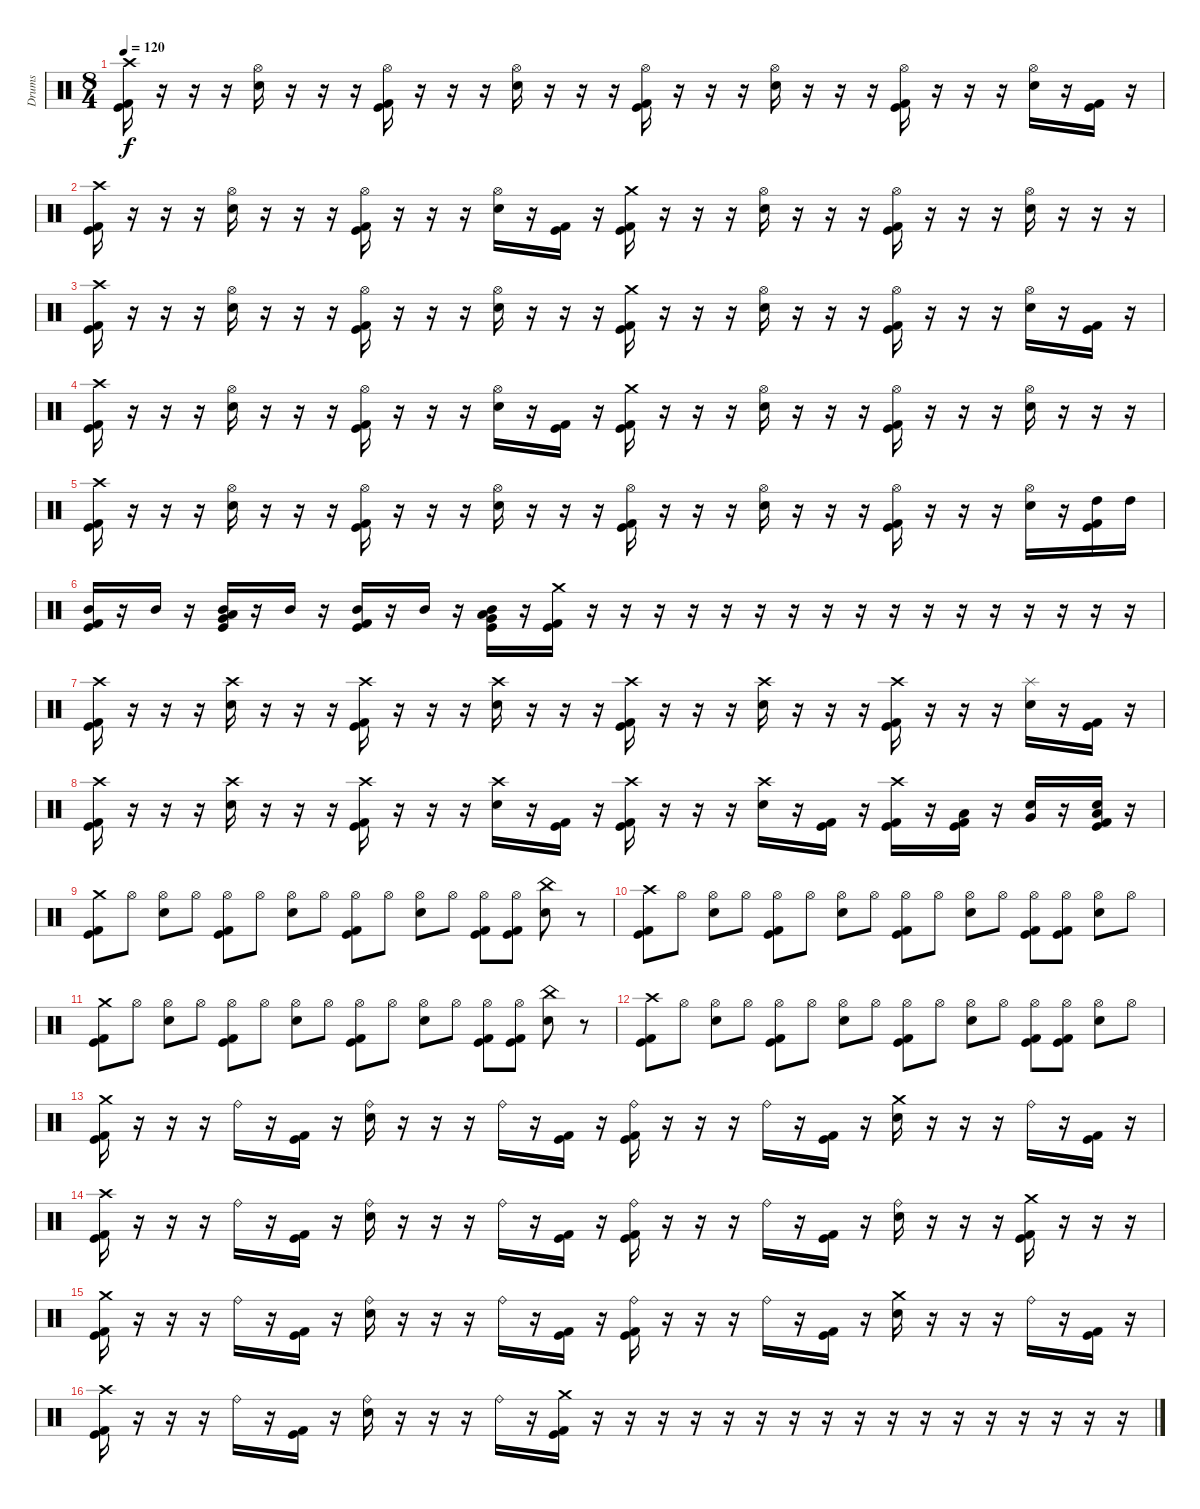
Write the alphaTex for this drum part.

\track ("Drums" "Drums") {instrument percussion}
\staff {score}
\articulation defaults
\ts (8 4)
\tempo 120
\clef neutral
\ks c
("Crash high (hit)" "Kick (hit) 2" "Kick (hit)").16{dy f} r.16 r.16 r.16 ("Hi-Hat (open)" "Electric Snare (hit)").16 r.16 r.16 r.16 ("Hi-Hat (open)" "Kick (hit) 2" "Kick (hit)").16 r.16 r.16 r.16 ("Hi-Hat (open)" "Electric Snare (hit)").16 r.16 r.16 r.16 ("Hi-Hat (open)" "Kick (hit) 2" "Kick (hit)").16 r.16 r.16 r.16 ("Hi-Hat (open)" "Electric Snare (hit)").16 r.16 r.16 r.16 ("Hi-Hat (open)" "Kick (hit) 2" "Kick (hit)").16 r.16 r.16 r.16 ("Hi-Hat (open)" "Electric Snare (hit)").16 r.16 ("Kick (hit) 2" "Kick (hit)").16 r.16 |
("Crash high (hit)" "Kick (hit) 2" "Kick (hit)").16 r.16 r.16 r.16 ("Hi-Hat (open)" "Electric Snare (hit)").16 r.16 r.16 r.16 ("Hi-Hat (open)" "Kick (hit) 2" "Kick (hit)").16 r.16 r.16 r.16 ("Hi-Hat (open)" "Electric Snare (hit)").16 r.16 ("Kick (hit) 2" "Kick (hit)").16 r.16 ("Crash medium (hit)" "Kick (hit) 2" "Kick (hit)").16 r.16 r.16 r.16 ("Hi-Hat (open)" "Electric Snare (hit)").16 r.16 r.16 r.16 ("Hi-Hat (open)" "Kick (hit) 2" "Kick (hit)").16 r.16 r.16 r.16 ("Hi-Hat (open)" "Electric Snare (hit)").16 r.16 r.16 r.16 |
("Crash high (hit)" "Kick (hit) 2" "Kick (hit)").16 r.16 r.16 r.16 ("Hi-Hat (open)" "Electric Snare (hit)").16 r.16 r.16 r.16 ("Hi-Hat (open)" "Kick (hit) 2" "Kick (hit)").16 r.16 r.16 r.16 ("Hi-Hat (open)" "Electric Snare (hit)").16 r.16 r.16 r.16 ("Crash medium (hit)" "Kick (hit) 2" "Kick (hit)").16 r.16 r.16 r.16 ("Hi-Hat (open)" "Electric Snare (hit)").16 r.16 r.16 r.16 ("Hi-Hat (open)" "Kick (hit) 2" "Kick (hit)").16 r.16 r.16 r.16 ("Hi-Hat (open)" "Electric Snare (hit)").16 r.16 ("Kick (hit) 2" "Kick (hit)").16 r.16 |
("Crash high (hit)" "Kick (hit) 2" "Kick (hit)").16 r.16 r.16 r.16 ("Hi-Hat (open)" "Electric Snare (hit)").16 r.16 r.16 r.16 ("Hi-Hat (open)" "Kick (hit) 2" "Kick (hit)").16 r.16 r.16 r.16 ("Hi-Hat (open)" "Electric Snare (hit)").16 r.16 ("Kick (hit) 2" "Kick (hit)").16 r.16 ("Crash medium (hit)" "Kick (hit) 2" "Kick (hit)").16 r.16 r.16 r.16 ("Hi-Hat (open)" "Electric Snare (hit)").16 r.16 r.16 r.16 ("Hi-Hat (open)" "Kick (hit) 2" "Kick (hit)").16 r.16 r.16 r.16 ("Hi-Hat (open)" "Electric Snare (hit)").16 r.16 r.16 r.16 |
("Crash high (hit)" "Kick (hit) 2" "Kick (hit)").16 r.16 r.16 r.16 ("Hi-Hat (open)" "Electric Snare (hit)").16 r.16 r.16 r.16 ("Hi-Hat (open)" "Kick (hit) 2" "Kick (hit)").16 r.16 r.16 r.16 ("Hi-Hat (open)" "Electric Snare (hit)").16 r.16 r.16 r.16 ("Hi-Hat (open)" "Kick (hit) 2" "Kick (hit)").16 r.16 r.16 r.16 ("Hi-Hat (open)" "Electric Snare (hit)").16 r.16 r.16 r.16 ("Hi-Hat (open)" "Kick (hit) 2" "Kick (hit)").16 r.16 r.16 r.16 ("Hi-Hat (open)" "Electric Snare (hit)").16 r.16 ("High Tom (hit)" "Kick (hit) 2" "Kick (hit)").16 "High Tom (hit)".16 |
("Mid Tom (hit)" "Kick (hit) 2" "Kick (hit)").16 r.16 "Mid Tom (hit)".16 r.16 ("Mid Tom (hit)" "Low Floor Tom (hit)" "Very Low Tom (hit)" "Kick (hit)").16 r.16 "Mid Tom (hit)".16 r.16 ("Mid Tom (hit)" "Kick (hit) 2" "Kick (hit)").16 r.16 "Mid Tom (hit)".16 r.16 ("Mid Tom (hit)" "Low Floor Tom (hit)" "Very Low Tom (hit)" "Kick (hit)").16 r.16 ("Crash medium (hit)" "Kick (hit) 2" "Kick (hit)").16 r.16 r.16 r.16 r.16 r.16 r.16 r.16 r.16 r.16 r.16 r.16 r.16 r.16 r.16 r.16 r.16 r.16 |
("Crash high (hit)" "Kick (hit)" "Kick (hit) 2").16 r.16 r.16 r.16 ("Crash high (hit)" "Electric Snare (hit)").16 r.16 r.16 r.16 ("Crash high (hit)" "Kick (hit)" "Kick (hit) 2").16 r.16 r.16 r.16 ("Crash high (hit)" "Electric Snare (hit)").16 r.16 r.16 r.16 ("Crash high (hit)" "Kick (hit) 2" "Kick (hit)").16 r.16 r.16 r.16 ("Crash high (hit)" "Electric Snare (hit)").16 r.16 r.16 r.16 ("Crash high (hit)" "Kick (hit) 2" "Kick (hit)").16 r.16 r.16 r.16 ("Splash (hit)" "Electric Snare (hit)").16 r.16 ("Kick (hit) 2" "Kick (hit)").16 r.16 |
("Crash high (hit)" "Kick (hit)" "Kick (hit) 2").16 r.16 r.16 r.16 ("Crash high (hit)" "Electric Snare (hit)").16 r.16 r.16 r.16 ("Crash high (hit)" "Kick (hit)" "Kick (hit) 2").16 r.16 r.16 r.16 ("Crash high (hit)" "Electric Snare (hit)").16 r.16 ("Kick (hit) 2" "Kick (hit)").16 r.16 ("Crash high (hit)" "Kick (hit) 2" "Kick (hit)").16 r.16 r.16 r.16 ("Crash high (hit)" "Electric Snare (hit)").16 r.16 ("Kick (hit) 2" "Kick (hit)").16 r.16 ("Crash high (hit)" "Kick (hit) 2" "Kick (hit)").16 r.16 ("Low Tom (hit)" "Kick (hit) 2" "Kick (hit)").16 r.16 ("Very Low Tom (hit)" "Electric Snare (hit)").16 r.16 ("Electric Snare (hit)" "Low Floor Tom (hit)" "Kick (hit) 2" "Kick (hit)").16 r.16 |
("Crash medium (hit)" "Kick (hit) 2" "Kick (hit)").8 "Hi-Hat (open)".8 ("Hi-Hat (open)" "Electric Snare (hit)").8 "Hi-Hat (open)".8 ("Hi-Hat (open)" "Kick (hit) 2" "Kick (hit)").8 "Hi-Hat (open)".8 ("Hi-Hat (open)" "Electric Snare (hit)").8 "Hi-Hat (open)".8 ("Hi-Hat (open)" "Kick (hit) 2" "Kick (hit)").8 "Hi-Hat (open)".8 ("Hi-Hat (open)" "Electric Snare (hit)").8 "Hi-Hat (open)".8 ("Hi-Hat (open)" "Kick (hit) 2" "Kick (hit)").8 ("Hi-Hat (open)" "Kick (hit) 2" "Kick (hit)").8 ("China (hit)" "Electric Snare (hit)").8 r.8 |
("Crash high (hit)" "Kick (hit) 2" "Kick (hit)").8 "Hi-Hat (open)".8 ("Hi-Hat (open)" "Electric Snare (hit)").8 "Hi-Hat (open)".8 ("Hi-Hat (open)" "Kick (hit) 2" "Kick (hit)").8 "Hi-Hat (open)".8 ("Hi-Hat (open)" "Electric Snare (hit)").8 "Hi-Hat (open)".8 ("Hi-Hat (open)" "Kick (hit) 2" "Kick (hit)").8 "Hi-Hat (open)".8 ("Hi-Hat (open)" "Electric Snare (hit)").8 "Hi-Hat (open)".8 ("Hi-Hat (open)" "Kick (hit) 2" "Kick (hit)").8 ("Hi-Hat (open)" "Kick (hit) 2" "Kick (hit)").8 ("Hi-Hat (open)" "Electric Snare (hit)").8 "Hi-Hat (open)".8 |
("Crash medium (hit)" "Kick (hit) 2" "Kick (hit)").8 "Hi-Hat (open)".8 ("Hi-Hat (open)" "Electric Snare (hit)").8 "Hi-Hat (open)".8 ("Hi-Hat (open)" "Kick (hit) 2" "Kick (hit)").8 "Hi-Hat (open)".8 ("Hi-Hat (open)" "Electric Snare (hit)").8 "Hi-Hat (open)".8 ("Hi-Hat (open)" "Kick (hit) 2" "Kick (hit)").8 "Hi-Hat (open)".8 ("Hi-Hat (open)" "Electric Snare (hit)").8 "Hi-Hat (open)".8 ("Hi-Hat (open)" "Kick (hit) 2" "Kick (hit)").8 ("Hi-Hat (open)" "Kick (hit) 2" "Kick (hit)").8 ("China (hit)" "Electric Snare (hit)").8 r.8 |
("Crash high (hit)" "Kick (hit) 2" "Kick (hit)").8 "Hi-Hat (open)".8 ("Hi-Hat (open)" "Electric Snare (hit)").8 "Hi-Hat (open)".8 ("Hi-Hat (open)" "Kick (hit) 2" "Kick (hit)").8 "Hi-Hat (open)".8 ("Hi-Hat (open)" "Electric Snare (hit)").8 "Hi-Hat (open)".8 ("Hi-Hat (open)" "Kick (hit) 2" "Kick (hit)").8 "Hi-Hat (open)".8 ("Hi-Hat (open)" "Electric Snare (hit)").8 "Hi-Hat (open)".8 ("Hi-Hat (open)" "Kick (hit) 2" "Kick (hit)").8 ("Hi-Hat (open)" "Kick (hit) 2" "Kick (hit)").8 ("Hi-Hat (open)" "Electric Snare (hit)").8 "Hi-Hat (open)".8 |
("Crash medium (hit)" "Kick (hit)" "Kick (hit) 2").16 r.16 r.16 r.16 "Ride (bell)".16 r.16 ("Kick (hit)" "Kick (hit) 2").16 r.16 ("Ride (bell)" "Electric Snare (hit)").16 r.16 r.16 r.16 "Ride (bell)".16 r.16 ("Kick (hit) 2" "Kick (hit)").16 r.16 ("Ride (bell)" "Kick (hit)" "Kick (hit) 2").16 r.16 r.16 r.16 "Ride (bell)".16 r.16 ("Kick (hit) 2" "Kick (hit)").16 r.16 ("Crash medium (hit)" "Electric Snare (hit)").16 r.16 r.16 r.16 "Ride (bell)".16 r.16 ("Kick (hit) 2" "Kick (hit)").16 r.16 |
("Crash high (hit)" "Kick (hit)" "Kick (hit) 2").16 r.16 r.16 r.16 "Ride (bell)".16 r.16 ("Kick (hit)" "Kick (hit) 2").16 r.16 ("Ride (bell)" "Electric Snare (hit)").16 r.16 r.16 r.16 "Ride (bell)".16 r.16 ("Kick (hit) 2" "Kick (hit)").16 r.16 ("Ride (bell)" "Kick (hit) 2" "Kick (hit)").16 r.16 r.16 r.16 "Ride (bell)".16 r.16 ("Kick (hit) 2" "Kick (hit)").16 r.16 ("Ride (bell)" "Electric Snare (hit)").16 r.16 r.16 r.16 ("Crash medium (hit)" "Kick (hit) 2" "Kick (hit)").16 r.16 r.16 r.16 |
("Crash medium (hit)" "Kick (hit)" "Kick (hit) 2").16 r.16 r.16 r.16 "Ride (bell)".16 r.16 ("Kick (hit)" "Kick (hit) 2").16 r.16 ("Ride (bell)" "Electric Snare (hit)").16 r.16 r.16 r.16 "Ride (bell)".16 r.16 ("Kick (hit) 2" "Kick (hit)").16 r.16 ("Ride (bell)" "Kick (hit)" "Kick (hit) 2").16 r.16 r.16 r.16 "Ride (bell)".16 r.16 ("Kick (hit) 2" "Kick (hit)").16 r.16 ("Crash medium (hit)" "Electric Snare (hit)").16 r.16 r.16 r.16 "Ride (bell)".16 r.16 ("Kick (hit) 2" "Kick (hit)").16 r.16 |
("Crash high (hit)" "Kick (hit)" "Kick (hit) 2").16 r.16 r.16 r.16 "Ride (bell)".16 r.16 ("Kick (hit)" "Kick (hit) 2").16 r.16 ("Ride (bell)" "Electric Snare (hit)").16 r.16 r.16 r.16 "Ride (bell)".16 r.16 ("Crash medium (hit)" "Kick (hit) 2" "Kick (hit)").16 r.16 r.16 r.16 r.16 r.16 r.16 r.16 r.16 r.16 r.16 r.16 r.16 r.16 r.16 r.16 r.16 r.16
